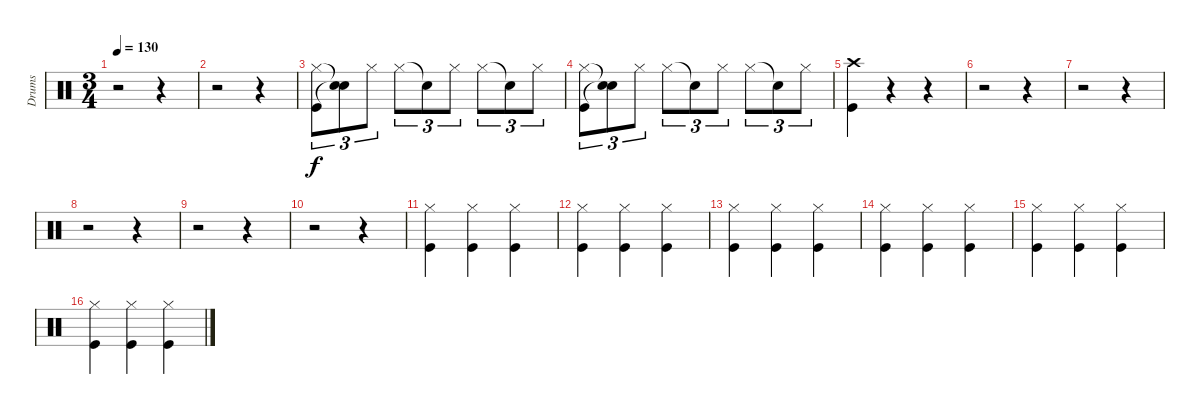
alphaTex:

\track ("Drums" "Drums") {instrument percussion}
\staff {score}
\articulation defaults
\ts (3 4)
\tempo 130
\clef neutral
\ks c
r.2{dy f} r.4 |
r.2 r.4 |
("Hi-Hat (closed)" "Kick (hit)").8{tu (3 2)} ("Snare (hit)"{t} "Snare (hit)"{t}).8{tu (3 2)} "Hi-Hat (closed)".8{tu (3 2)} "Hi-Hat (closed)".8{tu (3 2)} "Snare (hit)"{t}.8{tu (3 2)} "Hi-Hat (closed)".8{tu (3 2)} "Hi-Hat (closed)".8{tu (3 2)} "Snare (hit)"{t}.8{tu (3 2)} "Hi-Hat (closed)".8{tu (3 2)} |
("Hi-Hat (closed)" "Kick (hit)").8{tu (3 2)} ("Snare (hit)"{t} "Snare (hit)"{t}).8{tu (3 2)} "Hi-Hat (closed)".8{tu (3 2)} "Hi-Hat (closed)".8{tu (3 2)} "Snare (hit)"{t}.8{tu (3 2)} "Hi-Hat (closed)".8{tu (3 2)} "Hi-Hat (closed)".8{tu (3 2)} "Snare (hit)"{t}.8{tu (3 2)} "Hi-Hat (closed)".8{tu (3 2)} |
("Crash high (hit)" "Kick (hit)").4 r.4 r.4 |
r.2 r.4 |
r.2 r.4 |
r.2 r.4 |
r.2 r.4 |
r.2 r.4 |
("Hi-Hat (closed)" "Kick (hit)").4 ("Hi-Hat (closed)" "Kick (hit)").4 ("Hi-Hat (closed)" "Kick (hit)").4 |
("Hi-Hat (closed)" "Kick (hit)").4 ("Hi-Hat (closed)" "Kick (hit)").4 ("Hi-Hat (closed)" "Kick (hit)").4 |
("Hi-Hat (closed)" "Kick (hit)").4 ("Hi-Hat (closed)" "Kick (hit)").4 ("Hi-Hat (closed)" "Kick (hit)").4 |
("Hi-Hat (closed)" "Kick (hit)").4 ("Hi-Hat (closed)" "Kick (hit)").4 ("Hi-Hat (closed)" "Kick (hit)").4 |
("Hi-Hat (closed)" "Kick (hit)").4 ("Hi-Hat (closed)" "Kick (hit)").4 ("Hi-Hat (closed)" "Kick (hit)").4 |
("Hi-Hat (closed)" "Kick (hit)").4 ("Hi-Hat (closed)" "Kick (hit)").4 ("Hi-Hat (closed)" "Kick (hit)").4
